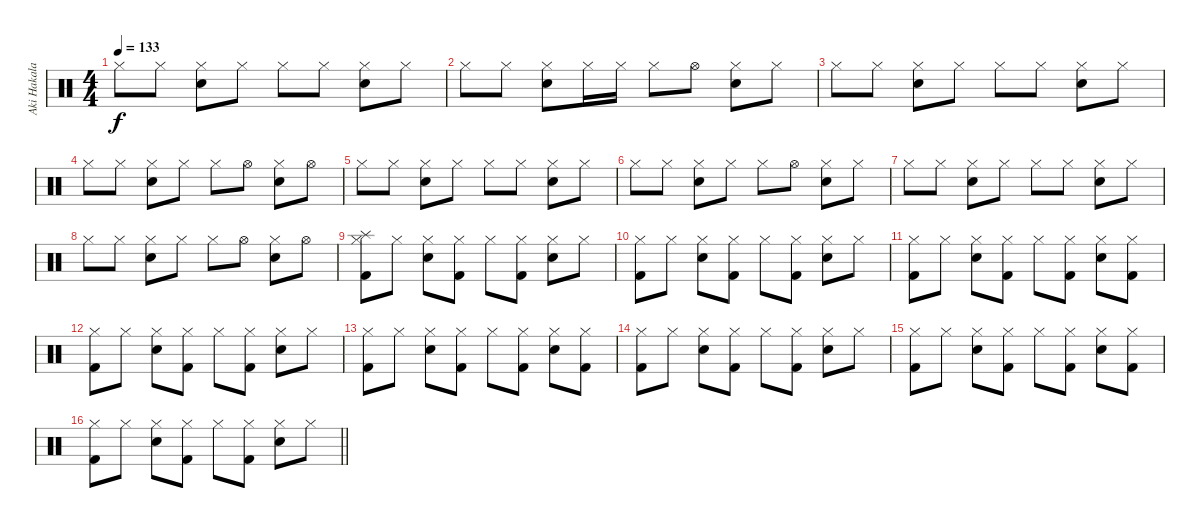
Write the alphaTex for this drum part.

\track ("Aki Hakala - Drums" "Aki Hakala") {instrument percussion}
\staff {score}
\articulation defaults
\ts (4 4)
\tempo 133
\clef neutral
\ks c "Hi-Hat (closed)".8{dy f} "Hi-Hat (closed)".8
("Snare (hit) 2" "Hi-Hat (closed)").8 "Hi-Hat (closed)".8 "Hi-Hat (closed)".8 "Hi-Hat (closed)".8 ("Snare (hit) 2" "Hi-Hat (closed)").8 "Hi-Hat (closed)".8 |
"Hi-Hat (closed)".8 "Hi-Hat (closed)".8 ("Snare (hit) 2" "Hi-Hat (closed)").8 "Hi-Hat (closed)".16 "Hi-Hat (closed)".16 "Hi-Hat (closed)".8 "Hi-Hat (open)".8 ("Snare (hit) 2" "Hi-Hat (closed)").8 "Hi-Hat (closed)".8 |
"Hi-Hat (closed)".8 "Hi-Hat (closed)".8 ("Snare (hit) 2" "Hi-Hat (closed)").8 "Hi-Hat (closed)".8 "Hi-Hat (closed)".8 "Hi-Hat (closed)".8 ("Snare (hit) 2" "Hi-Hat (closed)").8 "Hi-Hat (closed)".8 |
"Hi-Hat (closed)".8 "Hi-Hat (closed)".8 ("Snare (hit) 2" "Hi-Hat (closed)").8 "Hi-Hat (closed)".8 "Hi-Hat (closed)".8 "Hi-Hat (open)".8 ("Snare (hit) 2" "Hi-Hat (closed)").8 "Hi-Hat (open)".8 |
"Hi-Hat (closed)".8 "Hi-Hat (closed)".8 ("Snare (hit) 2" "Hi-Hat (closed)").8 "Hi-Hat (closed)".8 "Hi-Hat (closed)".8 "Hi-Hat (closed)".8 ("Snare (hit) 2" "Hi-Hat (closed)").8 "Hi-Hat (closed)".8 |
"Hi-Hat (closed)".8 "Hi-Hat (closed)".8 ("Snare (hit) 2" "Hi-Hat (closed)").8 "Hi-Hat (closed)".8 "Hi-Hat (closed)".8 "Hi-Hat (open)".8 ("Snare (hit) 2" "Hi-Hat (closed)").8 "Hi-Hat (closed)".8 |
"Hi-Hat (closed)".8 "Hi-Hat (closed)".8 ("Snare (hit) 2" "Hi-Hat (closed)").8 "Hi-Hat (closed)".8 "Hi-Hat (closed)".8 "Hi-Hat (closed)".8 ("Snare (hit) 2" "Hi-Hat (closed)").8 "Hi-Hat (closed)".8 |
"Hi-Hat (closed)".8 "Hi-Hat (closed)".8 ("Snare (hit) 2" "Hi-Hat (closed)").8 "Hi-Hat (closed)".8 "Hi-Hat (closed)".8 "Hi-Hat (open)".8 ("Snare (hit) 2" "Hi-Hat (closed)").8 "Hi-Hat (open)".8 |
("Splash (hit)" "Hi-Hat (closed)" "Kick (hit) 2").8 "Hi-Hat (closed)".8 ("Snare (hit) 2" "Hi-Hat (closed)").8 ("Hi-Hat (closed)" "Kick (hit) 2").8 "Hi-Hat (closed)".8 ("Hi-Hat (closed)" "Kick (hit) 2").8 ("Snare (hit) 2" "Hi-Hat (closed)").8 "Hi-Hat (closed)".8 |
("Hi-Hat (closed)" "Kick (hit) 2").8 "Hi-Hat (closed)".8 ("Snare (hit) 2" "Hi-Hat (closed)").8 ("Hi-Hat (closed)" "Kick (hit) 2").8 "Hi-Hat (closed)".8 ("Hi-Hat (closed)" "Kick (hit) 2").8 ("Snare (hit) 2" "Hi-Hat (closed)").8 "Hi-Hat (closed)".8 |
("Hi-Hat (closed)" "Kick (hit) 2").8 "Hi-Hat (closed)".8 ("Snare (hit) 2" "Hi-Hat (closed)").8 ("Hi-Hat (closed)" "Kick (hit) 2").8 "Hi-Hat (closed)".8 ("Hi-Hat (closed)" "Kick (hit) 2").8 ("Snare (hit) 2" "Hi-Hat (closed)").8 ("Hi-Hat (closed)" "Kick (hit) 2").8 |
("Hi-Hat (closed)" "Kick (hit) 2").8 "Hi-Hat (closed)".8 ("Snare (hit) 2" "Hi-Hat (closed)").8 ("Hi-Hat (closed)" "Kick (hit) 2").8 "Hi-Hat (closed)".8 ("Hi-Hat (closed)" "Kick (hit) 2").8 ("Snare (hit) 2" "Hi-Hat (closed)").8 "Hi-Hat (closed)".8 |
("Hi-Hat (closed)" "Kick (hit) 2").8 "Hi-Hat (closed)".8 ("Snare (hit) 2" "Hi-Hat (closed)").8 ("Hi-Hat (closed)" "Kick (hit) 2").8 "Hi-Hat (closed)".8 ("Hi-Hat (closed)" "Kick (hit) 2").8 ("Snare (hit) 2" "Hi-Hat (closed)").8 ("Hi-Hat (closed)" "Kick (hit) 2").8 |
("Hi-Hat (closed)" "Kick (hit) 2").8 "Hi-Hat (closed)".8 ("Snare (hit) 2" "Hi-Hat (closed)").8 ("Hi-Hat (closed)" "Kick (hit) 2").8 "Hi-Hat (closed)".8 ("Hi-Hat (closed)" "Kick (hit) 2").8 ("Snare (hit) 2" "Hi-Hat (closed)").8 "Hi-Hat (closed)".8 |
("Hi-Hat (closed)" "Kick (hit) 2").8 "Hi-Hat (closed)".8 ("Snare (hit) 2" "Hi-Hat (closed)").8 ("Hi-Hat (closed)" "Kick (hit) 2").8 "Hi-Hat (closed)".8 ("Hi-Hat (closed)" "Kick (hit) 2").8 ("Snare (hit) 2" "Hi-Hat (closed)").8 ("Hi-Hat (closed)" "Kick (hit) 2").8 |
\barLineRight lightlight
("Hi-Hat (closed)" "Kick (hit) 2").8 "Hi-Hat (closed)".8 ("Snare (hit) 2" "Hi-Hat (closed)").8 ("Hi-Hat (closed)" "Kick (hit) 2").8 "Hi-Hat (closed)".8 ("Hi-Hat (closed)" "Kick (hit) 2").8 ("Snare (hit) 2" "Hi-Hat (closed)").8 "Hi-Hat (closed)".8
